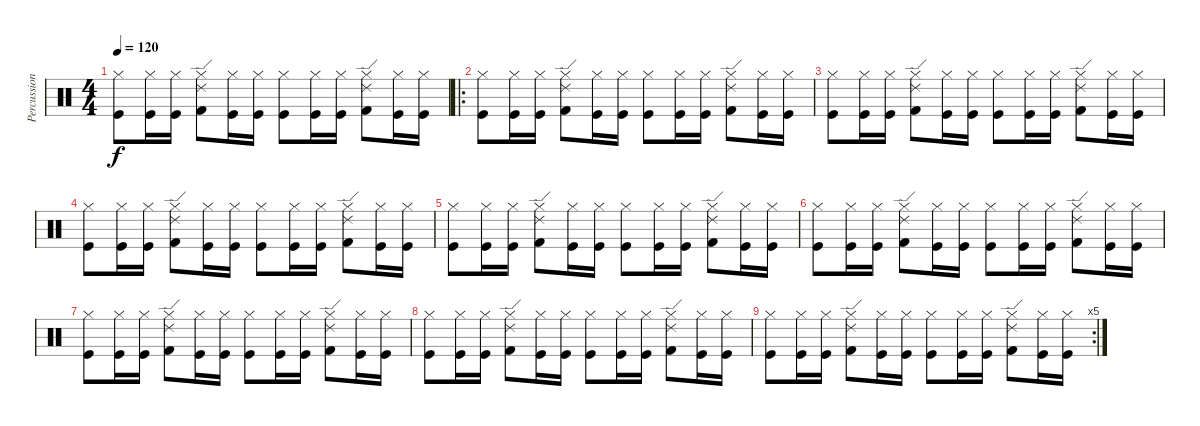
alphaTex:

\track ("Percussions" "Percussion") {instrument percussion}
\staff {score}
\articulation defaults
\ts (4 4)
\tempo 120
\clef neutral
\ks c
("Hi-Hat (closed)" "Kick (hit)").8{dy f} ("Hi-Hat (closed)" "Kick (hit)").16 ("Hi-Hat (closed)" "Kick (hit)").16 ("Hi-Hat (closed)" "Ride (edge) 2" "Kick (hit) 2").8 ("Hi-Hat (closed)" "Kick (hit)").16 ("Hi-Hat (closed)" "Kick (hit)").16 ("Hi-Hat (closed)" "Kick (hit)").8 ("Hi-Hat (closed)" "Kick (hit)").16 ("Hi-Hat (closed)" "Kick (hit)").16 ("Hi-Hat (closed)" "Ride (edge) 2" "Kick (hit) 2").8 ("Hi-Hat (closed)" "Kick (hit)").16 ("Hi-Hat (closed)" "Kick (hit)").16 |
\ro
("Hi-Hat (closed)" "Kick (hit)").8 ("Hi-Hat (closed)" "Kick (hit)").16 ("Hi-Hat (closed)" "Kick (hit)").16 ("Hi-Hat (closed)" "Ride (edge) 2" "Kick (hit) 2").8 ("Hi-Hat (closed)" "Kick (hit)").16 ("Hi-Hat (closed)" "Kick (hit)").16 ("Hi-Hat (closed)" "Kick (hit)").8 ("Hi-Hat (closed)" "Kick (hit)").16 ("Hi-Hat (closed)" "Kick (hit)").16 ("Hi-Hat (closed)" "Ride (edge) 2" "Kick (hit) 2").8 ("Hi-Hat (closed)" "Kick (hit)").16 ("Hi-Hat (closed)" "Kick (hit)").16 |
("Hi-Hat (closed)" "Kick (hit)").8 ("Hi-Hat (closed)" "Kick (hit)").16 ("Hi-Hat (closed)" "Kick (hit)").16 ("Hi-Hat (closed)" "Ride (edge) 2" "Kick (hit) 2").8 ("Hi-Hat (closed)" "Kick (hit)").16 ("Hi-Hat (closed)" "Kick (hit)").16 ("Hi-Hat (closed)" "Kick (hit)").8 ("Hi-Hat (closed)" "Kick (hit)").16 ("Hi-Hat (closed)" "Kick (hit)").16 ("Hi-Hat (closed)" "Ride (edge) 2" "Kick (hit) 2").8 ("Hi-Hat (closed)" "Kick (hit)").16 ("Hi-Hat (closed)" "Kick (hit)").16 |
("Hi-Hat (closed)" "Kick (hit)").8 ("Hi-Hat (closed)" "Kick (hit)").16 ("Hi-Hat (closed)" "Kick (hit)").16 ("Hi-Hat (closed)" "Ride (edge) 2" "Kick (hit) 2").8 ("Hi-Hat (closed)" "Kick (hit)").16 ("Hi-Hat (closed)" "Kick (hit)").16 ("Hi-Hat (closed)" "Kick (hit)").8 ("Hi-Hat (closed)" "Kick (hit)").16 ("Hi-Hat (closed)" "Kick (hit)").16 ("Hi-Hat (closed)" "Ride (edge) 2" "Kick (hit) 2").8 ("Hi-Hat (closed)" "Kick (hit)").16 ("Hi-Hat (closed)" "Kick (hit)").16 |
("Hi-Hat (closed)" "Kick (hit)").8 ("Hi-Hat (closed)" "Kick (hit)").16 ("Hi-Hat (closed)" "Kick (hit)").16 ("Hi-Hat (closed)" "Ride (edge) 2" "Kick (hit) 2").8 ("Hi-Hat (closed)" "Kick (hit)").16 ("Hi-Hat (closed)" "Kick (hit)").16 ("Hi-Hat (closed)" "Kick (hit)").8 ("Hi-Hat (closed)" "Kick (hit)").16 ("Hi-Hat (closed)" "Kick (hit)").16 ("Hi-Hat (closed)" "Ride (edge) 2" "Kick (hit) 2").8 ("Hi-Hat (closed)" "Kick (hit)").16 ("Hi-Hat (closed)" "Kick (hit)").16 |
("Hi-Hat (closed)" "Kick (hit)").8 ("Hi-Hat (closed)" "Kick (hit)").16 ("Hi-Hat (closed)" "Kick (hit)").16 ("Hi-Hat (closed)" "Ride (edge) 2" "Kick (hit) 2").8 ("Hi-Hat (closed)" "Kick (hit)").16 ("Hi-Hat (closed)" "Kick (hit)").16 ("Hi-Hat (closed)" "Kick (hit)").8 ("Hi-Hat (closed)" "Kick (hit)").16 ("Hi-Hat (closed)" "Kick (hit)").16 ("Hi-Hat (closed)" "Ride (edge) 2" "Kick (hit) 2").8 ("Hi-Hat (closed)" "Kick (hit)").16 ("Hi-Hat (closed)" "Kick (hit)").16 |
("Hi-Hat (closed)" "Kick (hit)").8 ("Hi-Hat (closed)" "Kick (hit)").16 ("Hi-Hat (closed)" "Kick (hit)").16 ("Hi-Hat (closed)" "Ride (edge) 2" "Kick (hit) 2").8 ("Hi-Hat (closed)" "Kick (hit)").16 ("Hi-Hat (closed)" "Kick (hit)").16 ("Hi-Hat (closed)" "Kick (hit)").8 ("Hi-Hat (closed)" "Kick (hit)").16 ("Hi-Hat (closed)" "Kick (hit)").16 ("Hi-Hat (closed)" "Ride (edge) 2" "Kick (hit) 2").8 ("Hi-Hat (closed)" "Kick (hit)").16 ("Hi-Hat (closed)" "Kick (hit)").16 |
("Hi-Hat (closed)" "Kick (hit)").8 ("Hi-Hat (closed)" "Kick (hit)").16 ("Hi-Hat (closed)" "Kick (hit)").16 ("Hi-Hat (closed)" "Ride (edge) 2" "Kick (hit) 2").8 ("Hi-Hat (closed)" "Kick (hit)").16 ("Hi-Hat (closed)" "Kick (hit)").16 ("Hi-Hat (closed)" "Kick (hit)").8 ("Hi-Hat (closed)" "Kick (hit)").16 ("Hi-Hat (closed)" "Kick (hit)").16 ("Hi-Hat (closed)" "Ride (edge) 2" "Kick (hit) 2").8 ("Hi-Hat (closed)" "Kick (hit)").16 ("Hi-Hat (closed)" "Kick (hit)").16 |
\rc 5
("Hi-Hat (closed)" "Kick (hit)").8 ("Hi-Hat (closed)" "Kick (hit)").16 ("Hi-Hat (closed)" "Kick (hit)").16 ("Hi-Hat (closed)" "Ride (edge) 2" "Kick (hit) 2").8 ("Hi-Hat (closed)" "Kick (hit)").16 ("Hi-Hat (closed)" "Kick (hit)").16 ("Hi-Hat (closed)" "Kick (hit)").8 ("Hi-Hat (closed)" "Kick (hit)").16 ("Hi-Hat (closed)" "Kick (hit)").16 ("Hi-Hat (closed)" "Ride (edge) 2" "Kick (hit) 2").8 ("Hi-Hat (closed)" "Kick (hit)").16 ("Hi-Hat (closed)" "Kick (hit)").16
